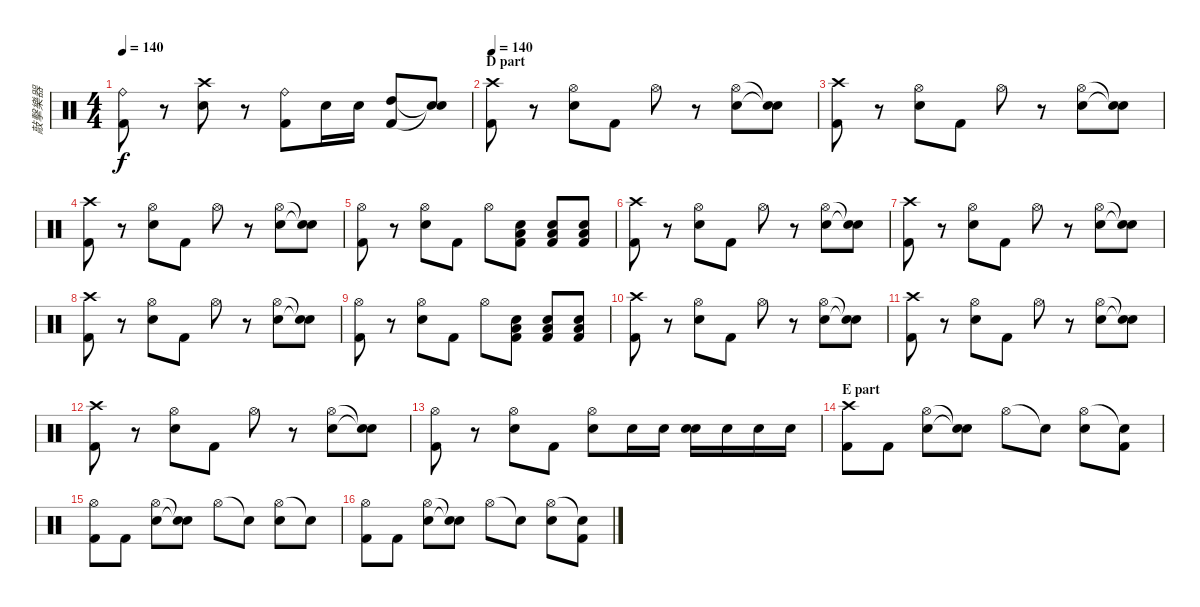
\track ("敲擊樂器" "敲擊樂器") {instrument percussion}
\staff {score}
\articulation defaults
\ts (4 4)
\tempo 140
\clef neutral
\ks c
("Ride (bell)" "Kick (hit) 2").8{dy f} r.8 ("Crash high (hit)" "Snare (hit) 2").8 r.8 ("Ride (bell)" "Kick (hit) 2").8 "Snare (hit) 2".16 "Snare (hit) 2".16 ("High Tom (hit)" "Kick (hit) 2").8 ("Snare (hit)"{t} "Snare (hit)"{t}).8 |
\section ("" "D part")
\tempo 140
("Crash high (hit)" "Kick (hit) 2").8 r.8 ("Hi-Hat (open)" "Snare (hit) 2").8 "Kick (hit) 2".8 "Hi-Hat (open)".8 r.8 ("Hi-Hat (open)" "Snare (hit) 2").8 ("Snare (hit)"{t} "Snare (hit)"{t}).8 |
("Crash high (hit)" "Kick (hit) 2").8 r.8 ("Hi-Hat (open)" "Snare (hit) 2").8 "Kick (hit) 2".8 "Hi-Hat (open)".8 r.8 ("Hi-Hat (open)" "Snare (hit) 2").8 ("Snare (hit)"{t} "Snare (hit)"{t}).8 |
("Crash high (hit)" "Kick (hit) 2").8 r.8 ("Hi-Hat (open)" "Snare (hit) 2").8 "Kick (hit) 2".8 "Hi-Hat (open)".8 r.8 ("Hi-Hat (open)" "Snare (hit) 2").8 ("Snare (hit)"{t} "Snare (hit)"{t}).8 |
("Hi-Hat (open)" "Kick (hit) 2").8 r.8 ("Hi-Hat (open)" "Snare (hit) 2").8 "Kick (hit) 2".8 "Hi-Hat (open)".8 ("Low Tom (hit)" "Snare (hit) 2" "Kick (hit) 2").8 ("Low Tom (hit)" "Snare (hit) 2" "Kick (hit) 2").8 ("Low Tom (hit)" "Snare (hit) 2" "Kick (hit) 2").8 |
("Crash high (hit)" "Kick (hit) 2").8 r.8 ("Hi-Hat (open)" "Snare (hit) 2").8 "Kick (hit) 2".8 "Hi-Hat (open)".8 r.8 ("Hi-Hat (open)" "Snare (hit) 2").8 ("Snare (hit)"{t} "Snare (hit)"{t}).8 |
("Crash high (hit)" "Kick (hit) 2").8 r.8 ("Hi-Hat (open)" "Snare (hit) 2").8 "Kick (hit) 2".8 "Hi-Hat (open)".8 r.8 ("Hi-Hat (open)" "Snare (hit) 2").8 ("Snare (hit)"{t} "Snare (hit)"{t}).8 |
("Crash high (hit)" "Kick (hit) 2").8 r.8 ("Hi-Hat (open)" "Snare (hit) 2").8 "Kick (hit) 2".8 "Hi-Hat (open)".8 r.8 ("Hi-Hat (open)" "Snare (hit) 2").8 ("Snare (hit)"{t} "Snare (hit)"{t}).8 |
("Hi-Hat (open)" "Kick (hit) 2").8 r.8 ("Hi-Hat (open)" "Snare (hit) 2").8 "Kick (hit) 2".8 "Hi-Hat (open)".8 ("Low Tom (hit)" "Snare (hit) 2" "Kick (hit) 2").8 ("Low Tom (hit)" "Snare (hit) 2" "Kick (hit) 2").8 ("Low Tom (hit)" "Snare (hit) 2" "Kick (hit) 2").8 |
("Crash high (hit)" "Kick (hit) 2").8 r.8 ("Hi-Hat (open)" "Snare (hit) 2").8 "Kick (hit) 2".8 "Hi-Hat (open)".8 r.8 ("Hi-Hat (open)" "Snare (hit) 2").8 ("Snare (hit)"{t} "Snare (hit)"{t}).8 |
("Crash high (hit)" "Kick (hit) 2").8 r.8 ("Hi-Hat (open)" "Snare (hit) 2").8 "Kick (hit) 2".8 "Hi-Hat (open)".8 r.8 ("Hi-Hat (open)" "Snare (hit) 2").8 ("Snare (hit)"{t} "Snare (hit)"{t}).8 |
("Crash high (hit)" "Kick (hit) 2").8 r.8 ("Hi-Hat (open)" "Snare (hit) 2").8 "Kick (hit) 2".8 "Hi-Hat (open)".8 r.8 ("Hi-Hat (open)" "Snare (hit) 2").8 ("Snare (hit)"{t} "Snare (hit)"{t}).8 |
("Hi-Hat (open)" "Kick (hit) 2").8 r.8 ("Hi-Hat (open)" "Snare (hit) 2").8 "Kick (hit) 2".8 ("Hi-Hat (open)" "Snare (hit) 2").8 "Snare (hit) 2".16 "Snare (hit) 2".16 ("Snare (hit) 2" "Snare (hit) 2").16 "Snare (hit) 2".16 "Snare (hit) 2".16 "Snare (hit) 2".16 |
\section ("" "E part")
("Crash high (hit)" "Kick (hit) 2").8 "Kick (hit) 2".8 ("Hi-Hat (open)" "Snare (hit) 2").8 ("Snare (hit)"{t} "Snare (hit)"{t}).8 "Hi-Hat (open)".8 "Snare (hit)"{t}.8 ("Hi-Hat (open)" "Snare (hit) 2").8 ("Snare (hit)"{t} "Kick (hit) 2").8 |
("Hi-Hat (open)" "Kick (hit) 2").8 "Kick (hit) 2".8 ("Hi-Hat (open)" "Snare (hit) 2").8 ("Snare (hit)"{t} "Snare (hit)"{t}).8 "Hi-Hat (open)".8 "Snare (hit)"{t}.8 ("Hi-Hat (open)" "Snare (hit) 2").8 "Snare (hit)"{t}.8 |
("Hi-Hat (open)" "Kick (hit) 2").8 "Kick (hit) 2".8 ("Hi-Hat (open)" "Snare (hit) 2").8 ("Snare (hit)"{t} "Snare (hit)"{t}).8 "Hi-Hat (open)".8 "Snare (hit)"{t}.8 ("Hi-Hat (open)" "Snare (hit) 2").8 ("Snare (hit)"{t} "Kick (hit) 2").8
